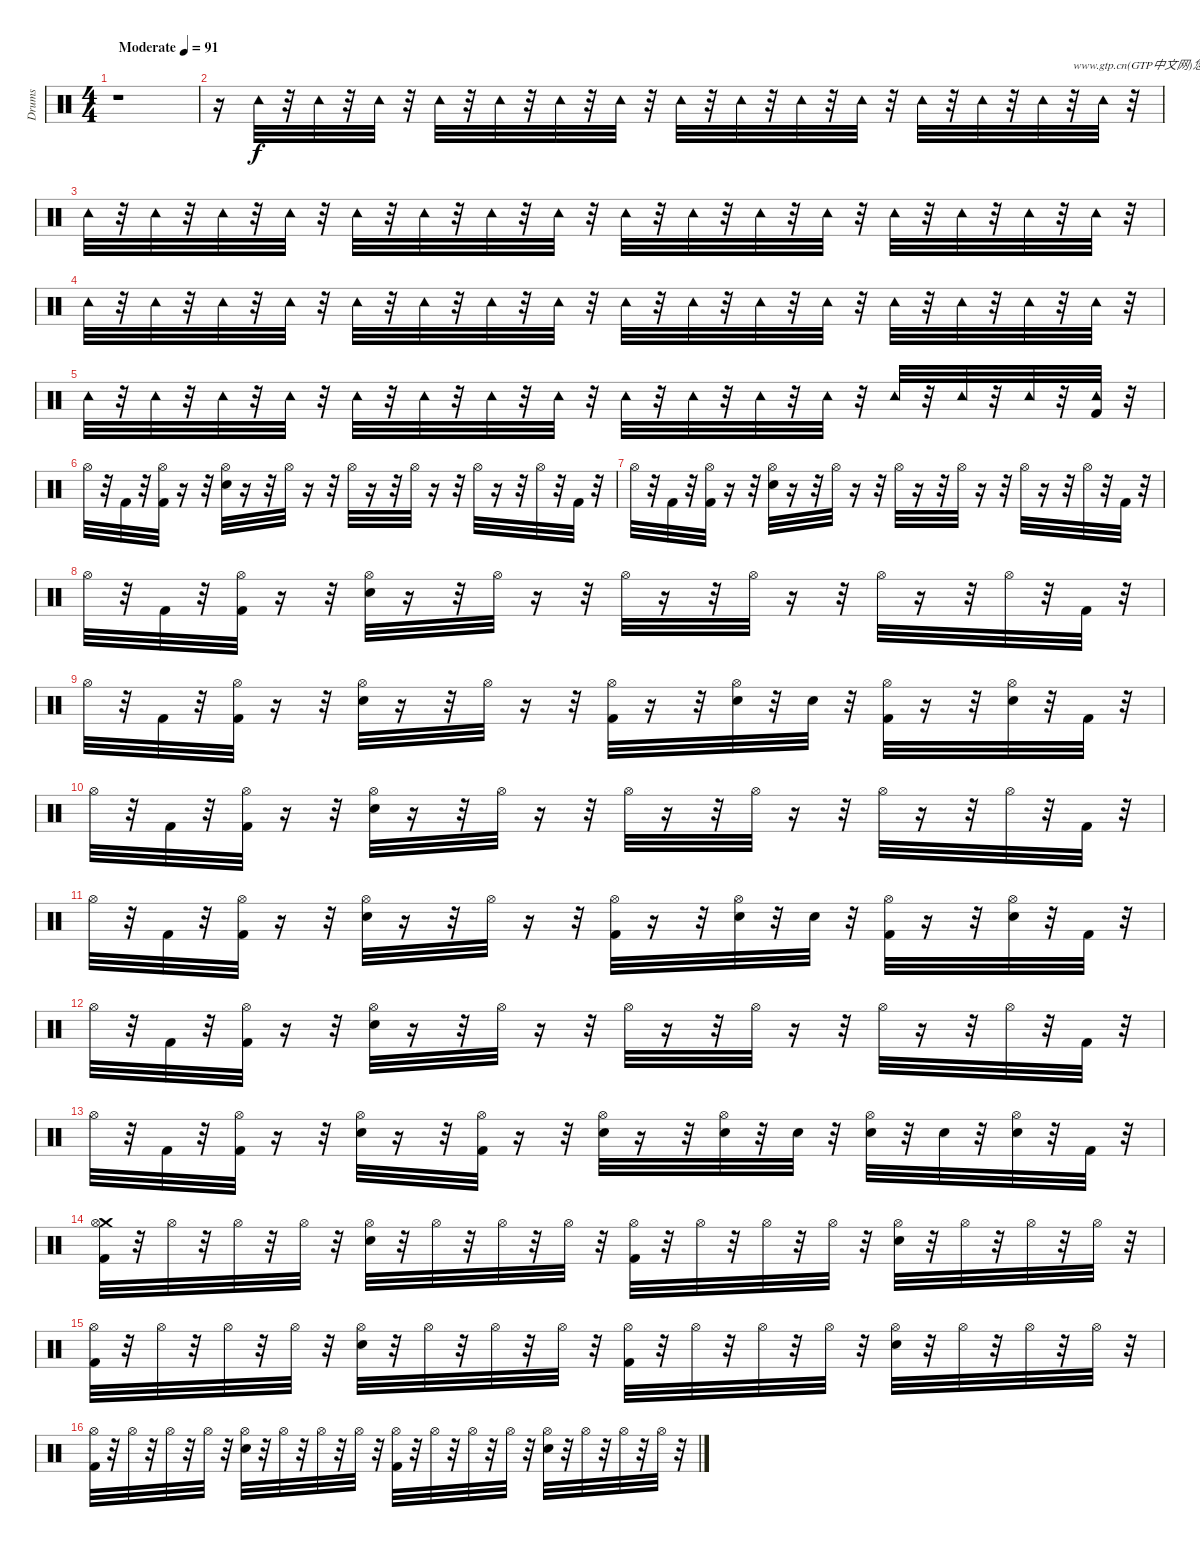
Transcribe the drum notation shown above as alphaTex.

\track ("Drums" "Drums") {instrument percussion}
\staff {score}
\articulation defaults
\ts (4 4)
\tempo (91 "Moderate")
\clef neutral
\ks c
r.1{dy f volume 0} |
r.16{volume 16} "Tambourine (hit)".32 r.32 "Tambourine (hit)".32 r.32 "Tambourine (hit)".32 r.32 "Tambourine (hit)".32 r.32 "Tambourine (hit)".32 r.32 "Tambourine (hit)".32 r.32 "Tambourine (hit)".32 r.32 "Tambourine (hit)".32 r.32 "Tambourine (hit)".32 r.32 "Tambourine (hit)".32 r.32 "Tambourine (hit)".32 r.32 "Tambourine (hit)".32 r.32 "Tambourine (hit)".32 r.32 "Tambourine (hit)".32 r.32{txt "www.gtp.cn(GTP中文网)您提供优秀的GTP"} "Tambourine (hit)".32 r.32 |
"Tambourine (hit)".32 r.32 "Tambourine (hit)".32 r.32 "Tambourine (hit)".32 r.32 "Tambourine (hit)".32 r.32 "Tambourine (hit)".32 r.32 "Tambourine (hit)".32 r.32 "Tambourine (hit)".32 r.32 "Tambourine (hit)".32 r.32 "Tambourine (hit)".32 r.32 "Tambourine (hit)".32 r.32 "Tambourine (hit)".32 r.32 "Tambourine (hit)".32 r.32 "Tambourine (hit)".32 r.32 "Tambourine (hit)".32 r.32 "Tambourine (hit)".32 r.32 "Tambourine (hit)".32 r.32 |
"Tambourine (hit)".32 r.32 "Tambourine (hit)".32 r.32 "Tambourine (hit)".32 r.32 "Tambourine (hit)".32 r.32 "Tambourine (hit)".32 r.32 "Tambourine (hit)".32 r.32 "Tambourine (hit)".32 r.32 "Tambourine (hit)".32 r.32 "Tambourine (hit)".32 r.32 "Tambourine (hit)".32 r.32 "Tambourine (hit)".32 r.32 "Tambourine (hit)".32 r.32 "Tambourine (hit)".32 r.32 "Tambourine (hit)".32 r.32 "Tambourine (hit)".32 r.32 "Tambourine (hit)".32 r.32 |
"Tambourine (hit)".32 r.32 "Tambourine (hit)".32 r.32 "Tambourine (hit)".32 r.32 "Tambourine (hit)".32 r.32 "Tambourine (hit)".32 r.32 "Tambourine (hit)".32 r.32 "Tambourine (hit)".32 r.32 "Tambourine (hit)".32 r.32 "Tambourine (hit)".32 r.32 "Tambourine (hit)".32 r.32 "Tambourine (hit)".32 r.32 "Tambourine (hit)".32 r.32 "Tambourine (hit)".32 r.32 "Tambourine (hit)".32 r.32 "Tambourine (hit)".32 r.32 ("Kick (hit) 2" "Tambourine (hit)").32 r.32 |
"Hi-Hat (open)".32 r.32 "Kick (hit) 2".32 r.32 ("Hi-Hat (open)" "Kick (hit) 2").32 r.16 r.32 ("Hi-Hat (open)" "Snare (hit) 2").32 r.16 r.32 "Hi-Hat (open)".32 r.16 r.32 "Hi-Hat (open)".32 r.16 r.32 "Hi-Hat (open)".32 r.16 r.32 "Hi-Hat (open)".32 r.16 r.32 "Hi-Hat (open)".32 r.32 "Kick (hit) 2".32 r.32 |
"Hi-Hat (open)".32 r.32 "Kick (hit) 2".32 r.32 ("Hi-Hat (open)" "Kick (hit) 2").32 r.16 r.32 ("Hi-Hat (open)" "Snare (hit) 2").32 r.16 r.32 "Hi-Hat (open)".32 r.16 r.32 "Hi-Hat (open)".32 r.16 r.32 "Hi-Hat (open)".32 r.16 r.32 "Hi-Hat (open)".32 r.16 r.32 "Hi-Hat (open)".32 r.32 "Kick (hit) 2".32 r.32 |
"Hi-Hat (open)".32 r.32 "Kick (hit) 2".32 r.32 ("Hi-Hat (open)" "Kick (hit) 2").32 r.16 r.32 ("Hi-Hat (open)" "Snare (hit) 2").32 r.16 r.32 "Hi-Hat (open)".32 r.16 r.32 "Hi-Hat (open)".32 r.16 r.32 "Hi-Hat (open)".32 r.16 r.32 "Hi-Hat (open)".32 r.16 r.32 "Hi-Hat (open)".32 r.32 "Kick (hit) 2".32 r.32 |
"Hi-Hat (open)".32 r.32 "Kick (hit) 2".32 r.32 ("Hi-Hat (open)" "Kick (hit) 2").32 r.16 r.32 ("Hi-Hat (open)" "Snare (hit) 2").32 r.16 r.32 "Hi-Hat (open)".32 r.16 r.32 ("Kick (hit) 2" "Hi-Hat (open)").32 r.16 r.32 ("Snare (hit) 2" "Hi-Hat (open)").32 r.32 "Snare (hit) 2".32 r.32 ("Kick (hit) 2" "Hi-Hat (open)").32 r.16 r.32 ("Snare (hit) 2" "Hi-Hat (open)").32 r.32 "Kick (hit) 2".32 r.32 |
"Hi-Hat (open)".32 r.32 "Kick (hit) 2".32 r.32 ("Hi-Hat (open)" "Kick (hit) 2").32 r.16 r.32 ("Hi-Hat (open)" "Snare (hit) 2").32 r.16 r.32 "Hi-Hat (open)".32 r.16 r.32 "Hi-Hat (open)".32 r.16 r.32 "Hi-Hat (open)".32 r.16 r.32 "Hi-Hat (open)".32 r.16 r.32 "Hi-Hat (open)".32 r.32 "Kick (hit) 2".32 r.32 |
"Hi-Hat (open)".32 r.32 "Kick (hit) 2".32 r.32 ("Hi-Hat (open)" "Kick (hit) 2").32 r.16 r.32 ("Hi-Hat (open)" "Snare (hit) 2").32 r.16 r.32 "Hi-Hat (open)".32 r.16 r.32 ("Kick (hit) 2" "Hi-Hat (open)").32 r.16 r.32 ("Snare (hit) 2" "Hi-Hat (open)").32 r.32 "Snare (hit) 2".32 r.32 ("Kick (hit) 2" "Hi-Hat (open)").32 r.16 r.32 ("Snare (hit) 2" "Hi-Hat (open)").32 r.32 "Kick (hit) 2".32 r.32 |
"Hi-Hat (open)".32 r.32 "Kick (hit) 2".32 r.32 ("Hi-Hat (open)" "Kick (hit) 2").32 r.16 r.32 ("Hi-Hat (open)" "Snare (hit) 2").32 r.16 r.32 "Hi-Hat (open)".32 r.16 r.32 "Hi-Hat (open)".32 r.16 r.32 "Hi-Hat (open)".32 r.16 r.32 "Hi-Hat (open)".32 r.16 r.32 "Hi-Hat (open)".32 r.32 "Kick (hit) 2".32 r.32 |
"Hi-Hat (open)".32 r.32 "Kick (hit) 2".32 r.32 ("Hi-Hat (open)" "Kick (hit) 2").32 r.16 r.32 ("Hi-Hat (open)" "Snare (hit) 2").32 r.16 r.32 ("Kick (hit) 2" "Hi-Hat (open)").32 r.16 r.32 ("Snare (hit) 2" "Hi-Hat (open)").32 r.16 r.32 ("Snare (hit) 2" "Hi-Hat (open)").32 r.32 "Snare (hit) 2".32 r.32 ("Snare (hit) 2" "Hi-Hat (open)").32 r.32 "Snare (hit) 2".32 r.32 ("Snare (hit) 2" "Hi-Hat (open)").32 r.32 "Kick (hit) 2".32 r.32 |
("Crash medium (hit)" "Kick (hit) 2" "Hi-Hat (open)").32 r.32 "Hi-Hat (open)".32 r.32 "Hi-Hat (open)".32 r.32 "Hi-Hat (open)".32 r.32 ("Snare (hit) 2" "Hi-Hat (open)").32 r.32 "Hi-Hat (open)".32 r.32 "Hi-Hat (open)".32 r.32 "Hi-Hat (open)".32 r.32 ("Kick (hit) 2" "Hi-Hat (open)").32 r.32 "Hi-Hat (open)".32 r.32 "Hi-Hat (open)".32 r.32 "Hi-Hat (open)".32 r.32 ("Snare (hit) 2" "Hi-Hat (open)").32 r.32 "Hi-Hat (open)".32 r.32 "Hi-Hat (open)".32 r.32 "Hi-Hat (open)".32 r.32 |
("Kick (hit) 2" "Hi-Hat (open)").32 r.32 "Hi-Hat (open)".32 r.32 "Hi-Hat (open)".32 r.32 "Hi-Hat (open)".32 r.32 ("Snare (hit) 2" "Hi-Hat (open)").32 r.32 "Hi-Hat (open)".32 r.32 "Hi-Hat (open)".32 r.32 "Hi-Hat (open)".32 r.32 ("Kick (hit) 2" "Hi-Hat (open)").32 r.32 "Hi-Hat (open)".32 r.32 "Hi-Hat (open)".32 r.32 "Hi-Hat (open)".32 r.32 ("Snare (hit) 2" "Hi-Hat (open)").32 r.32 "Hi-Hat (open)".32 r.32 "Hi-Hat (open)".32 r.32 "Hi-Hat (open)".32 r.32 |
("Kick (hit) 2" "Hi-Hat (open)").32 r.32 "Hi-Hat (open)".32 r.32 "Hi-Hat (open)".32 r.32 "Hi-Hat (open)".32 r.32 ("Snare (hit) 2" "Hi-Hat (open)").32 r.32 "Hi-Hat (open)".32 r.32 "Hi-Hat (open)".32 r.32 "Hi-Hat (open)".32 r.32 ("Kick (hit) 2" "Hi-Hat (open)").32 r.32 "Hi-Hat (open)".32 r.32 "Hi-Hat (open)".32 r.32 "Hi-Hat (open)".32 r.32 ("Snare (hit) 2" "Hi-Hat (open)").32 r.32 "Hi-Hat (open)".32 r.32 "Hi-Hat (open)".32 r.32 "Hi-Hat (open)".32 r.32
